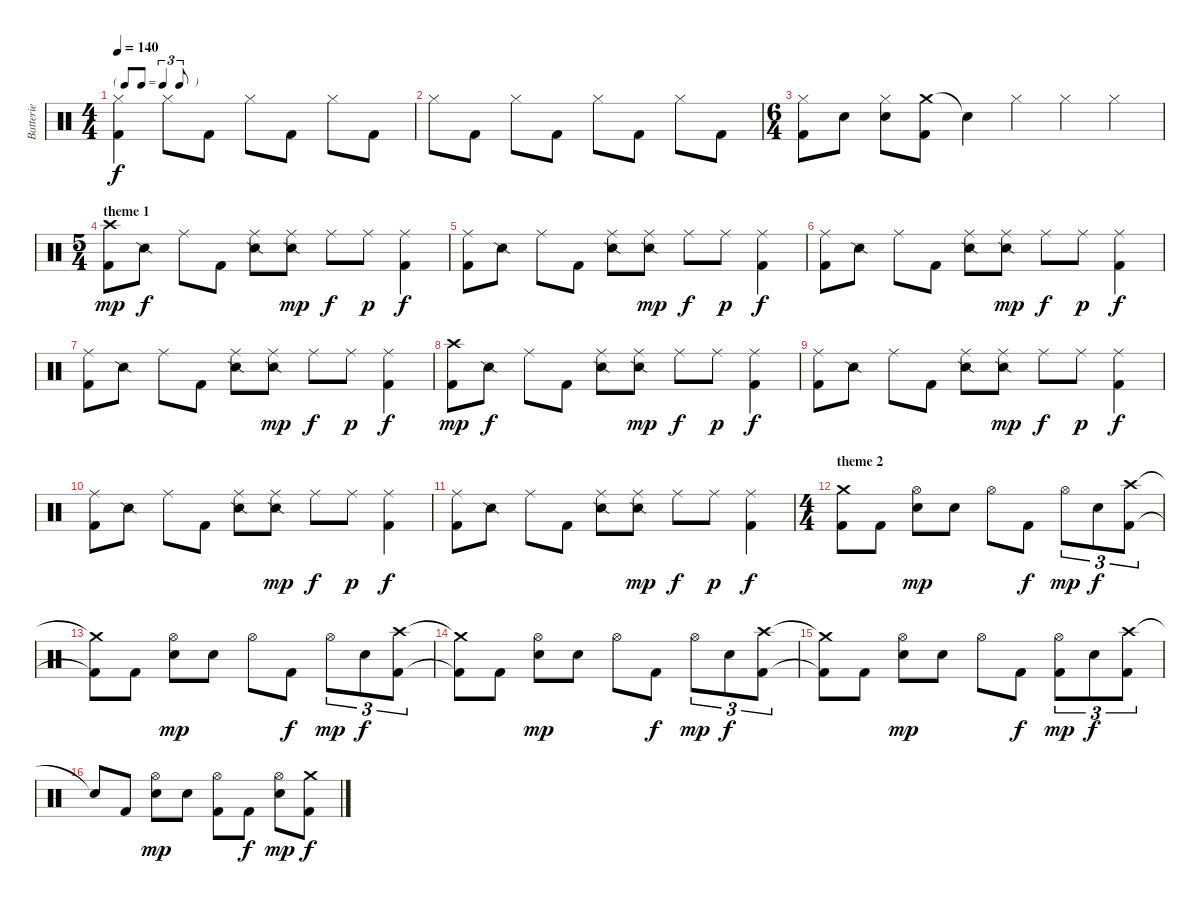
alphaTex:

\track ("Batterie" "Batterie") {instrument percussion}
\staff {score}
\articulation defaults
\ts (4 4)
\tf triplet8th
\tempo 140
\clef neutral
\ks c
("Hi-Hat (closed)" "Kick (hit) 2").4{dy f} "Hi-Hat (closed)".8 "Kick (hit) 2".8 "Hi-Hat (closed)".8 "Kick (hit) 2".8 "Hi-Hat (closed)".8 "Kick (hit) 2".8 |
"Hi-Hat (closed)".8 "Kick (hit) 2".8 "Hi-Hat (closed)".8 "Kick (hit) 2".8 "Hi-Hat (closed)".8 "Kick (hit) 2".8 "Hi-Hat (closed)".8 "Kick (hit) 2".8 |
\ts (6 4)
("Hi-Hat (closed)" "Kick (hit) 2").8 "Electric Snare (hit)".8 ("Hi-Hat (closed)" "Electric Snare (hit)").8 ("Crash medium (hit)" "Kick (hit) 2").8 "Snare (hit)"{t}.4 "Hi-Hat (closed)".4 "Hi-Hat (closed)".4 "Hi-Hat (closed)".4 |
\ts (5 4)
\section ("" "theme 1")
("Crash high (hit)" "Kick (hit) 2").8{dy mp} "Snare (side stick) 2".8{dy f} "Ride (middle)".8 "Kick (hit) 2".8 ("Ride (middle)" "Snare (side stick) 2").8 ("Ride (middle)" "Snare (side stick) 2").8{dy mp} "Ride (middle)".8{dy f} "Ride (middle)".8{dy p} ("Ride (middle)" "Kick (hit) 2").4{dy f} |
("Ride (middle)" "Kick (hit) 2").8 "Snare (side stick) 2".8 "Ride (middle)".8 "Kick (hit) 2".8 ("Ride (middle)" "Snare (side stick) 2").8 ("Ride (middle)" "Snare (side stick) 2").8{dy mp} "Ride (middle)".8{dy f} "Ride (middle)".8{dy p} ("Ride (middle)" "Kick (hit) 2").4{dy f} |
("Ride (middle)" "Kick (hit) 2").8 "Snare (side stick) 2".8 "Ride (middle)".8 "Kick (hit) 2".8 ("Ride (middle)" "Snare (side stick) 2").8 ("Ride (middle)" "Snare (side stick) 2").8{dy mp} "Ride (middle)".8{dy f} "Ride (middle)".8{dy p} ("Ride (middle)" "Kick (hit) 2").4{dy f} |
("Ride (middle)" "Kick (hit) 2").8 "Snare (side stick) 2".8 "Ride (middle)".8 "Kick (hit) 2".8 ("Ride (middle)" "Snare (side stick) 2").8 ("Ride (middle)" "Snare (side stick) 2").8{dy mp} "Ride (middle)".8{dy f} "Ride (middle)".8{dy p} ("Ride (middle)" "Kick (hit) 2").4{dy f} |
("Crash high (hit)" "Kick (hit) 2").8{dy mp} "Snare (side stick) 2".8{dy f} "Ride (middle)".8 "Kick (hit) 2".8 ("Ride (middle)" "Snare (side stick) 2").8 ("Ride (middle)" "Snare (side stick) 2").8{dy mp} "Ride (middle)".8{dy f} "Ride (middle)".8{dy p} ("Ride (middle)" "Kick (hit) 2").4{dy f} |
("Ride (middle)" "Kick (hit) 2").8 "Snare (side stick) 2".8 "Ride (middle)".8 "Kick (hit) 2".8 ("Ride (middle)" "Snare (side stick) 2").8 ("Ride (middle)" "Snare (side stick) 2").8{dy mp} "Ride (middle)".8{dy f} "Ride (middle)".8{dy p} ("Ride (middle)" "Kick (hit) 2").4{dy f} |
("Ride (middle)" "Kick (hit) 2").8 "Snare (side stick) 2".8 "Ride (middle)".8 "Kick (hit) 2".8 ("Ride (middle)" "Snare (side stick) 2").8 ("Ride (middle)" "Snare (side stick) 2").8{dy mp} "Ride (middle)".8{dy f} "Ride (middle)".8{dy p} ("Ride (middle)" "Kick (hit) 2").4{dy f} |
("Ride (middle)" "Kick (hit) 2").8 "Snare (side stick) 2".8 "Ride (middle)".8 "Kick (hit) 2".8 ("Ride (middle)" "Snare (side stick) 2").8 ("Ride (middle)" "Snare (side stick) 2").8{dy mp} "Ride (middle)".8{dy f} "Ride (middle)".8{dy p} ("Ride (middle)" "Kick (hit) 2").4{dy f} |
\ts (4 4)
\section ("" "theme 2")
("Crash medium (hit)" "Kick (hit) 2").8 "Kick (hit) 2".8 ("Hi-Hat (open)" "Electric Snare (hit)").8{dy mp} "Electric Snare (hit)".8 "Hi-Hat (open)".8 "Kick (hit) 2".8{dy f} "Hi-Hat (open)".8{tu (3 2) dy mp} "Electric Snare (hit)".8{tu (3 2) dy f} ("Crash high (hit)" "Kick (hit) 2").8{tu (3 2)} |
("Crash medium (hit)"{t} "Kick (hit) 2"{t}).8 "Kick (hit) 2".8 ("Hi-Hat (open)" "Electric Snare (hit)").8{dy mp} "Electric Snare (hit)".8 "Hi-Hat (open)".8 "Kick (hit) 2".8{dy f} "Hi-Hat (open)".8{tu (3 2) dy mp} "Electric Snare (hit)".8{tu (3 2) dy f} ("Crash high (hit)" "Kick (hit) 2").8{tu (3 2)} |
("Crash medium (hit)"{t} "Kick (hit) 2"{t}).8 "Kick (hit) 2".8 ("Hi-Hat (open)" "Electric Snare (hit)").8{dy mp} "Electric Snare (hit)".8 "Hi-Hat (open)".8 "Kick (hit) 2".8{dy f} "Hi-Hat (open)".8{tu (3 2) dy mp} "Electric Snare (hit)".8{tu (3 2) dy f} ("Crash high (hit)" "Kick (hit) 2").8{tu (3 2)} |
("Crash medium (hit)"{t} "Kick (hit) 2"{t}).8 "Kick (hit) 2".8 ("Hi-Hat (open)" "Electric Snare (hit)").8{dy mp} "Electric Snare (hit)".8 "Hi-Hat (open)".8 "Kick (hit) 2".8{dy f} ("Hi-Hat (open)" "Kick (hit) 2").8{tu (3 2) dy mp} "Electric Snare (hit)".8{tu (3 2) dy f} ("Crash high (hit)" "Kick (hit) 2").8{tu (3 2)} |
"Snare (hit)"{t}.8 "Kick (hit) 2".8 ("Hi-Hat (open)" "Electric Snare (hit)").8{dy mp} "Electric Snare (hit)".8 ("Hi-Hat (open)" "Kick (hit) 2").8 "Kick (hit) 2".8{dy f} ("Hi-Hat (open)" "Electric Snare (hit)").8{dy mp} ("Crash medium (hit)" "Kick (hit) 2").8{dy f}
